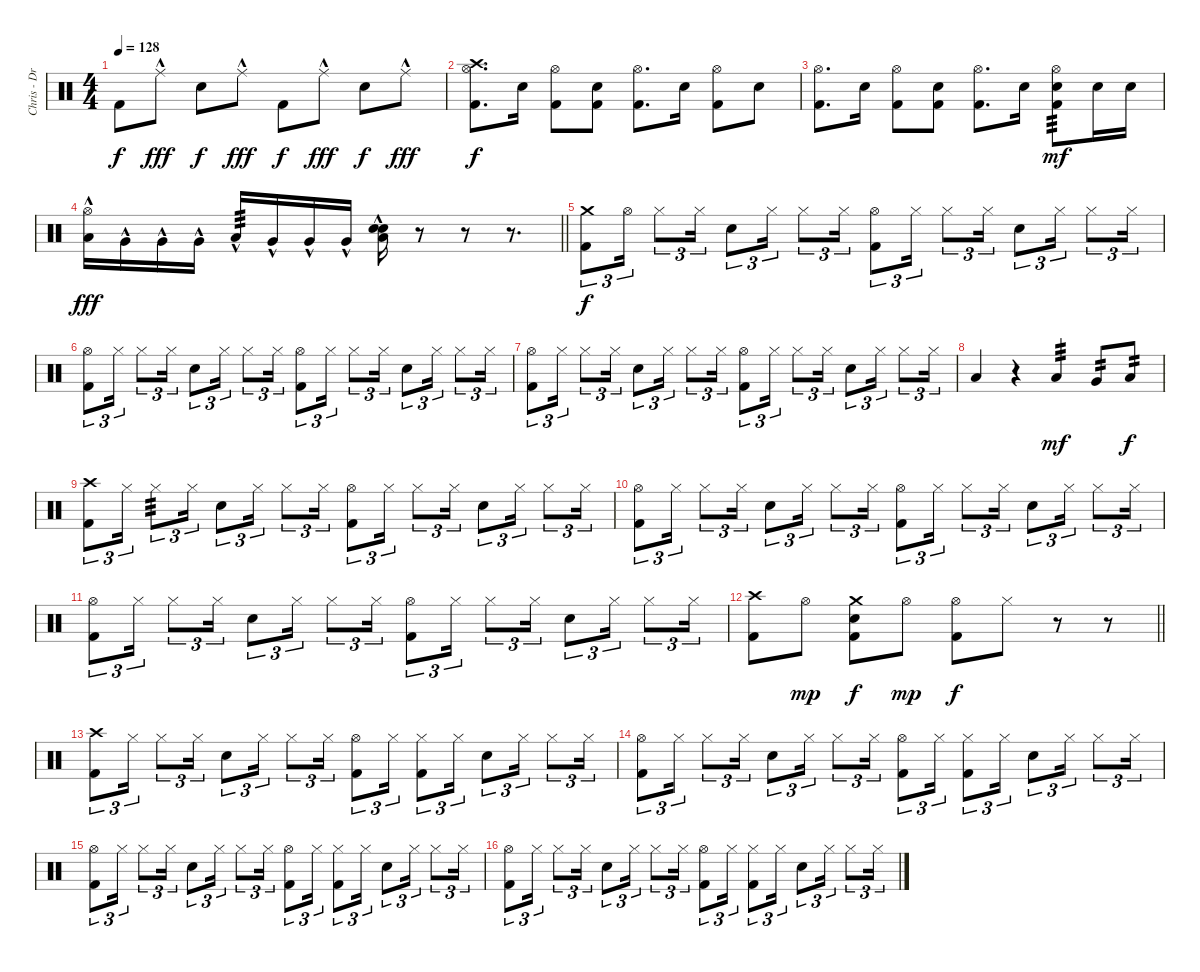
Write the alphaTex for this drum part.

\track ("Chris - Drums" "Chris - Dr") {instrument percussion}
\staff {score}
\articulation defaults
\ts (4 4)
\tempo 128
\clef neutral
\ks c "Kick (hit) 2".8{dy f} "Ride (middle)"{hac}.8{dy fff} "Electric Snare (hit)".8{dy f} "Ride (middle)"{hac}.8{dy fff} "Kick (hit) 2".8{dy f} "Ride (middle)"{hac}.8{dy fff} "Electric Snare (hit)".8{dy f} "Ride (middle)"{hac}.8{dy fff}
|
("Crash high (hit)" "Hi-Hat (open)" "Kick (hit) 2").8{d dy f} "Electric Snare (hit)".16 ("Hi-Hat (open)" "Kick (hit) 2").8 ("Electric Snare (hit)" "Kick (hit) 2").8 ("Hi-Hat (open)" "Kick (hit) 2").8{d} "Electric Snare (hit)".16 ("Hi-Hat (open)" "Kick (hit) 2").8 "Electric Snare (hit)".8 |
("Hi-Hat (open)" "Kick (hit) 2").8{d} "Electric Snare (hit)".16 ("Hi-Hat (open)" "Kick (hit) 2").8 ("Electric Snare (hit)" "Kick (hit) 2").8 ("Hi-Hat (open)" "Kick (hit) 2").8{d} "Electric Snare (hit)".16 ("Hi-Hat (open)" "Electric Snare (hit)" "Kick (hit) 2").8{tp 3 dy mf} "Electric Snare (hit)".16 "Electric Snare (hit)".16 |
\barLineRight lightlight
("Hi-Hat (open)" "Low Tom (hit)"{hac}).16{dy fff} "Very Low Tom (hit)"{hac}.16 "Very Low Tom (hit)"{hac}.16 "Very Low Tom (hit)"{hac}.16 "Low Tom (hit)"{hac}.16{tp 3} "Very Low Tom (hit)"{hac}.16 "Very Low Tom (hit)"{hac}.16 "Very Low Tom (hit)"{hac}.16 ("Electric Snare (hit)" "Electric Snare (hit)" "Low Tom (hit)"{hac}).16 r.8 r.8 r.8{d} |
("Crash medium (hit)" "Kick (hit) 2").8{tu (3 2) dy f} "Hi-Hat (open)".16{tu (3 2)} "Hi-Hat (closed)".8{tu (3 2)} "Hi-Hat (closed)".16{tu (3 2)} "Electric Snare (hit)".8{tu (3 2)} "Hi-Hat (closed)".16{tu (3 2)} "Hi-Hat (closed)".8{tu (3 2)} "Hi-Hat (closed)".16{tu (3 2)} ("Hi-Hat (open)" "Kick (hit) 2").8{tu (3 2)} "Hi-Hat (closed)".16{tu (3 2)} "Hi-Hat (closed)".8{tu (3 2)} "Hi-Hat (closed)".16{tu (3 2)} "Electric Snare (hit)".8{tu (3 2)} "Hi-Hat (closed)".16{tu (3 2)} "Hi-Hat (closed)".8{tu (3 2)} "Hi-Hat (closed)".16{tu (3 2)} |
("Hi-Hat (open)" "Kick (hit) 2").8{tu (3 2)} "Hi-Hat (closed)".16{tu (3 2)} "Hi-Hat (closed)".8{tu (3 2)} "Hi-Hat (closed)".16{tu (3 2)} "Electric Snare (hit)".8{tu (3 2)} "Hi-Hat (closed)".16{tu (3 2)} "Hi-Hat (closed)".8{tu (3 2)} "Hi-Hat (closed)".16{tu (3 2)} ("Hi-Hat (open)" "Kick (hit) 2").8{tu (3 2)} "Hi-Hat (closed)".16{tu (3 2)} "Hi-Hat (closed)".8{tu (3 2)} "Hi-Hat (closed)".16{tu (3 2)} "Electric Snare (hit)".8{tu (3 2)} "Hi-Hat (closed)".16{tu (3 2)} "Hi-Hat (closed)".8{tu (3 2)} "Hi-Hat (closed)".16{tu (3 2)} |
("Hi-Hat (open)" "Kick (hit) 2").8{tu (3 2)} "Hi-Hat (closed)".16{tu (3 2)} "Hi-Hat (closed)".8{tu (3 2)} "Hi-Hat (closed)".16{tu (3 2)} "Electric Snare (hit)".8{tu (3 2)} "Hi-Hat (closed)".16{tu (3 2)} "Hi-Hat (closed)".8{tu (3 2)} "Hi-Hat (closed)".16{tu (3 2)} ("Hi-Hat (open)" "Kick (hit) 2").8{tu (3 2)} "Hi-Hat (closed)".16{tu (3 2)} "Hi-Hat (closed)".8{tu (3 2)} "Hi-Hat (closed)".16{tu (3 2)} "Electric Snare (hit)".8{tu (3 2)} "Hi-Hat (closed)".16{tu (3 2)} "Hi-Hat (closed)".8{tu (3 2)} "Hi-Hat (closed)".16{tu (3 2)} |
"Low Tom (hit)".4 r.4 "Low Tom (hit)".4{tp 3 dy mf} "Very Low Tom (hit)".8{tp 2} "Low Tom (hit)".8{tp 2 dy f} |
("Crash high (hit)" "Kick (hit) 2").8{tu (3 2)} "Hi-Hat (closed)".16{tu (3 2)} "Hi-Hat (closed)".8{tu (3 2) tp 3} "Hi-Hat (closed)".16{tu (3 2)} "Electric Snare (hit)".8{tu (3 2)} "Hi-Hat (closed)".16{tu (3 2)} "Hi-Hat (closed)".8{tu (3 2)} "Hi-Hat (closed)".16{tu (3 2)} ("Hi-Hat (open)" "Kick (hit) 2").8{tu (3 2)} "Hi-Hat (closed)".16{tu (3 2)} "Hi-Hat (closed)".8{tu (3 2)} "Hi-Hat (closed)".16{tu (3 2)} "Electric Snare (hit)".8{tu (3 2)} "Hi-Hat (closed)".16{tu (3 2)} "Hi-Hat (closed)".8{tu (3 2)} "Hi-Hat (closed)".16{tu (3 2)} |
("Hi-Hat (open)" "Kick (hit) 2").8{tu (3 2)} "Hi-Hat (closed)".16{tu (3 2)} "Hi-Hat (closed)".8{tu (3 2)} "Hi-Hat (closed)".16{tu (3 2)} "Electric Snare (hit)".8{tu (3 2)} "Hi-Hat (closed)".16{tu (3 2)} "Hi-Hat (closed)".8{tu (3 2)} "Hi-Hat (closed)".16{tu (3 2)} ("Hi-Hat (open)" "Kick (hit) 2").8{tu (3 2)} "Hi-Hat (closed)".16{tu (3 2)} "Hi-Hat (closed)".8{tu (3 2)} "Hi-Hat (closed)".16{tu (3 2)} "Electric Snare (hit)".8{tu (3 2)} "Hi-Hat (closed)".16{tu (3 2)} "Hi-Hat (closed)".8{tu (3 2)} "Hi-Hat (closed)".16{tu (3 2)} |
("Hi-Hat (open)" "Kick (hit) 2").8{tu (3 2)} "Hi-Hat (closed)".16{tu (3 2)} "Hi-Hat (closed)".8{tu (3 2)} "Hi-Hat (closed)".16{tu (3 2)} "Electric Snare (hit)".8{tu (3 2)} "Hi-Hat (closed)".16{tu (3 2)} "Hi-Hat (closed)".8{tu (3 2)} "Hi-Hat (closed)".16{tu (3 2)} ("Hi-Hat (open)" "Kick (hit) 2").8{tu (3 2)} "Hi-Hat (closed)".16{tu (3 2)} "Hi-Hat (closed)".8{tu (3 2)} "Hi-Hat (closed)".16{tu (3 2)} "Electric Snare (hit)".8{tu (3 2)} "Hi-Hat (closed)".16{tu (3 2)} "Hi-Hat (closed)".8{tu (3 2)} "Hi-Hat (closed)".16{tu (3 2)} |
\barLineRight lightlight
("Crash high (hit)" "Kick (hit) 2").8 "Hi-Hat (open)".8{dy mp} ("Crash medium (hit)" "Electric Snare (hit)" "Kick (hit) 2").8{dy f} "Hi-Hat (open)".8{dy mp} ("Hi-Hat (open)" "Kick (hit) 2").8{dy f} "Hi-Hat (closed)".8 r.8 r.8 |
("Crash high (hit)" "Kick (hit) 2").8{tu (3 2)} "Hi-Hat (closed)".16{tu (3 2)} "Hi-Hat (closed)".8{tu (3 2)} "Hi-Hat (closed)".16{tu (3 2)} "Electric Snare (hit)".8{tu (3 2)} "Hi-Hat (closed)".16{tu (3 2)} "Hi-Hat (closed)".8{tu (3 2)} "Hi-Hat (closed)".16{tu (3 2)} ("Hi-Hat (open)" "Kick (hit) 2").8{tu (3 2)} "Hi-Hat (closed)".16{tu (3 2)} ("Hi-Hat (closed)" "Kick (hit) 2").8{tu (3 2)} "Hi-Hat (closed)".16{tu (3 2)} "Electric Snare (hit)".8{tu (3 2)} "Hi-Hat (closed)".16{tu (3 2)} "Hi-Hat (closed)".8{tu (3 2)} "Hi-Hat (closed)".16{tu (3 2)} |
("Hi-Hat (open)" "Kick (hit) 2").8{tu (3 2)} "Hi-Hat (closed)".16{tu (3 2)} "Hi-Hat (closed)".8{tu (3 2)} "Hi-Hat (closed)".16{tu (3 2)} "Electric Snare (hit)".8{tu (3 2)} "Hi-Hat (closed)".16{tu (3 2)} "Hi-Hat (closed)".8{tu (3 2)} "Hi-Hat (closed)".16{tu (3 2)} ("Hi-Hat (open)" "Kick (hit) 2").8{tu (3 2)} "Hi-Hat (closed)".16{tu (3 2)} ("Hi-Hat (closed)" "Kick (hit) 2").8{tu (3 2)} "Hi-Hat (closed)".16{tu (3 2)} "Electric Snare (hit)".8{tu (3 2)} "Hi-Hat (closed)".16{tu (3 2)} "Hi-Hat (closed)".8{tu (3 2)} "Hi-Hat (closed)".16{tu (3 2)} |
("Hi-Hat (open)" "Kick (hit) 2").8{tu (3 2)} "Hi-Hat (closed)".16{tu (3 2)} "Hi-Hat (closed)".8{tu (3 2)} "Hi-Hat (closed)".16{tu (3 2)} "Electric Snare (hit)".8{tu (3 2)} "Hi-Hat (closed)".16{tu (3 2)} "Hi-Hat (closed)".8{tu (3 2)} "Hi-Hat (closed)".16{tu (3 2)} ("Hi-Hat (open)" "Kick (hit) 2").8{tu (3 2)} "Hi-Hat (closed)".16{tu (3 2)} ("Hi-Hat (closed)" "Kick (hit) 2").8{tu (3 2)} "Hi-Hat (closed)".16{tu (3 2)} "Electric Snare (hit)".8{tu (3 2)} "Hi-Hat (closed)".16{tu (3 2)} "Hi-Hat (closed)".8{tu (3 2)} "Hi-Hat (closed)".16{tu (3 2)} |
("Hi-Hat (open)" "Kick (hit) 2").8{tu (3 2)} "Hi-Hat (closed)".16{tu (3 2)} "Hi-Hat (closed)".8{tu (3 2)} "Hi-Hat (closed)".16{tu (3 2)} "Electric Snare (hit)".8{tu (3 2)} "Hi-Hat (closed)".16{tu (3 2)} "Hi-Hat (closed)".8{tu (3 2)} "Hi-Hat (closed)".16{tu (3 2)} ("Hi-Hat (open)" "Kick (hit) 2").8{tu (3 2)} "Hi-Hat (closed)".16{tu (3 2)} ("Hi-Hat (closed)" "Kick (hit) 2").8{tu (3 2)} "Hi-Hat (closed)".16{tu (3 2)} "Electric Snare (hit)".8{tu (3 2)} "Hi-Hat (closed)".16{tu (3 2)} "Hi-Hat (closed)".8{tu (3 2)} "Hi-Hat (closed)".16{tu (3 2)}
